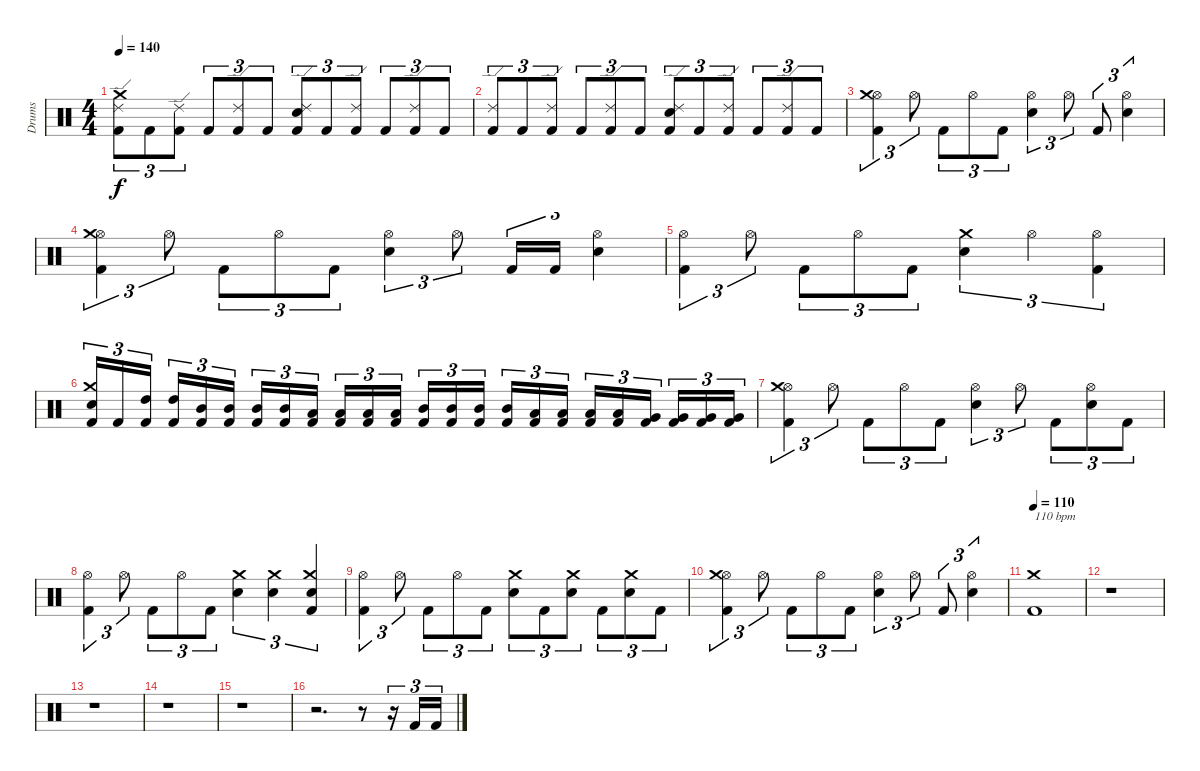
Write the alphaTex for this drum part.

\track ("Drums" "Drums") {instrument percussion}
\staff {score}
\articulation defaults
\ts (4 4)
\tempo 140
\clef neutral
\ks c
("Kick (hit) 2" "Ride (edge) 2" "Crash medium (hit)").8{tu (3 2) dy f} "Kick (hit) 2".8{tu (3 2)} ("Kick (hit) 2" "Ride (edge) 2").8{tu (3 2)} "Kick (hit) 2".8{tu (3 2)} ("Kick (hit) 2" "Ride (edge) 2").8{tu (3 2)} "Kick (hit) 2".8{tu (3 2)} ("Kick (hit) 2" "Snare (hit) 2" "Ride (edge) 2").8{tu (3 2)} "Kick (hit) 2".8{tu (3 2)} ("Kick (hit) 2" "Ride (edge) 2").8{tu (3 2)} "Kick (hit) 2".8{tu (3 2)} ("Kick (hit) 2" "Ride (edge) 2").8{tu (3 2)} "Kick (hit) 2".8{tu (3 2)} |
("Kick (hit) 2" "Ride (edge) 2").8{tu (3 2)} "Kick (hit) 2".8{tu (3 2)} ("Kick (hit) 2" "Ride (edge) 2").8{tu (3 2)} "Kick (hit) 2".8{tu (3 2)} ("Kick (hit) 2" "Ride (edge) 2").8{tu (3 2)} "Kick (hit) 2".8{tu (3 2)} ("Kick (hit) 2" "Snare (hit) 2" "Ride (edge) 2").8{tu (3 2)} "Kick (hit) 2".8{tu (3 2)} ("Kick (hit) 2" "Ride (edge) 2").8{tu (3 2)} "Kick (hit) 2".8{tu (3 2)} ("Kick (hit) 2" "Ride (edge) 2").8{tu (3 2)} "Kick (hit) 2".8{tu (3 2)} |
("Kick (hit) 2" "Hi-Hat (open)" "Crash medium (hit)").4{tu (3 2)} "Hi-Hat (open)".8{tu (3 2)} "Kick (hit) 2".8{tu (3 2)} "Hi-Hat (open)".8{tu (3 2)} "Kick (hit) 2".8{tu (3 2)} ("Snare (hit) 2" "Hi-Hat (open)").4{tu (3 2)} "Hi-Hat (open)".8{tu (3 2)} "Kick (hit) 2".8{tu (3 2)} ("Snare (hit) 2" "Hi-Hat (open)").4{tu (3 2)} |
("Kick (hit) 2" "Hi-Hat (open)" "Crash medium (hit)").4{tu (3 2)} "Hi-Hat (open)".8{tu (3 2)} "Kick (hit) 2".8{tu (3 2)} "Hi-Hat (open)".8{tu (3 2)} "Kick (hit) 2".8{tu (3 2)} ("Snare (hit) 2" "Hi-Hat (open)").4{tu (3 2)} "Hi-Hat (open)".8{tu (3 2)} "Kick (hit) 2".16{tu (3 2)} "Kick (hit) 2".16{tu (3 2)} ("Snare (hit) 2" "Hi-Hat (open)").4{tu (3 2)} |
("Kick (hit) 2" "Hi-Hat (open)").4{tu (3 2)} "Hi-Hat (open)".8{tu (3 2)} "Kick (hit) 2".8{tu (3 2)} "Hi-Hat (open)".8{tu (3 2)} "Kick (hit) 2".8{tu (3 2)} ("Snare (hit) 2" "Crash medium (hit)").4{tu (3 2)} "Hi-Hat (open)".4{tu (3 2)} ("Kick (hit) 2" "Hi-Hat (open)").4{tu (3 2)} |
("Kick (hit) 2" "Snare (hit) 2" "Crash medium (hit)").16{tu (3 2)} "Kick (hit) 2".16{tu (3 2)} ("Kick (hit) 2" "High Tom (hit)").16{tu (3 2)} ("Kick (hit) 2" "High Tom (hit)").16{tu (3 2)} ("Kick (hit) 2" "Mid Tom (hit)").16{tu (3 2)} ("Kick (hit) 2" "Mid Tom (hit)").16{tu (3 2)} ("Kick (hit) 2" "Mid Tom (hit)").16{tu (3 2)} ("Kick (hit) 2" "Mid Tom (hit)").16{tu (3 2)} ("Kick (hit) 2" "Low Tom (hit)").16{tu (3 2)} ("Kick (hit) 2" "Low Tom (hit)").16{tu (3 2)} ("Kick (hit) 2" "Low Tom (hit)").16{tu (3 2)} ("Kick (hit) 2" "Low Tom (hit)").16{tu (3 2)} ("Kick (hit) 2" "Mid Tom (hit)").16{tu (3 2)} ("Kick (hit) 2" "Mid Tom (hit)").16{tu (3 2)} ("Kick (hit) 2" "Mid Tom (hit)").16{tu (3 2)} ("Kick (hit) 2" "Mid Tom (hit)").16{tu (3 2)} ("Kick (hit) 2" "Low Tom (hit)").16{tu (3 2)} ("Kick (hit) 2" "Low Tom (hit)").16{tu (3 2)} ("Kick (hit) 2" "Low Tom (hit)").16{tu (3 2)} ("Kick (hit) 2" "Low Tom (hit)").16{tu (3 2)} ("Kick (hit) 2" "Very Low Tom (hit)").16{tu (3 2)} ("Kick (hit) 2" "Very Low Tom (hit)").16{tu (3 2)} ("Kick (hit) 2" "Very Low Tom (hit)").16{tu (3 2)} ("Kick (hit) 2" "Very Low Tom (hit)").16{tu (3 2)} |
("Kick (hit) 2" "Hi-Hat (open)" "Crash medium (hit)").4{tu (3 2)} "Hi-Hat (open)".8{tu (3 2)} "Kick (hit) 2".8{tu (3 2)} "Hi-Hat (open)".8{tu (3 2)} "Kick (hit) 2".8{tu (3 2)} ("Snare (hit) 2" "Hi-Hat (open)").4{tu (3 2)} "Hi-Hat (open)".8{tu (3 2)} "Kick (hit) 2".8{tu (3 2)} ("Snare (hit) 2" "Hi-Hat (open)").8{tu (3 2)} "Kick (hit) 2".8{tu (3 2)} |
("Kick (hit) 2" "Hi-Hat (open)").4{tu (3 2)} "Hi-Hat (open)".8{tu (3 2)} "Kick (hit) 2".8{tu (3 2)} "Hi-Hat (open)".8{tu (3 2)} "Kick (hit) 2".8{tu (3 2)} ("Snare (hit) 2" "Crash medium (hit)").4{tu (3 2)} ("Snare (hit) 2" "Crash medium (hit)").4{tu (3 2)} ("Kick (hit) 2" "Snare (hit) 2" "Crash medium (hit)").4{tu (3 2)} |
("Kick (hit) 2" "Hi-Hat (open)").4{tu (3 2)} "Hi-Hat (open)".8{tu (3 2)} "Kick (hit) 2".8{tu (3 2)} "Hi-Hat (open)".8{tu (3 2)} "Kick (hit) 2".8{tu (3 2)} ("Snare (hit) 2" "Crash medium (hit)").8{tu (3 2)} "Kick (hit) 2".8{tu (3 2)} ("Snare (hit) 2" "Crash medium (hit)").8{tu (3 2)} "Kick (hit) 2".8{tu (3 2)} ("Snare (hit) 2" "Crash medium (hit)").8{tu (3 2)} "Kick (hit) 2".8{tu (3 2)} |
("Kick (hit) 2" "Hi-Hat (open)" "Crash medium (hit)").4{tu (3 2)} "Hi-Hat (open)".8{tu (3 2)} "Kick (hit) 2".8{tu (3 2)} "Hi-Hat (open)".8{tu (3 2)} "Kick (hit) 2".8{tu (3 2)} ("Snare (hit) 2" "Hi-Hat (open)").4{tu (3 2)} "Hi-Hat (open)".8{tu (3 2)} "Kick (hit) 2".8{tu (3 2)} ("Snare (hit) 2" "Hi-Hat (open)").4{tu (3 2)} |
\tempo 110
("Kick (hit) 2" "Crash medium (hit)").1{txt "110 bpm"} |
r.1 |
r.1 |
r.1 |
r.1 |
r.2{d} r.8 r.16{tu (3 2)} "Kick (hit) 2".16{tu (3 2)} "Kick (hit) 2".16{tu (3 2)}
